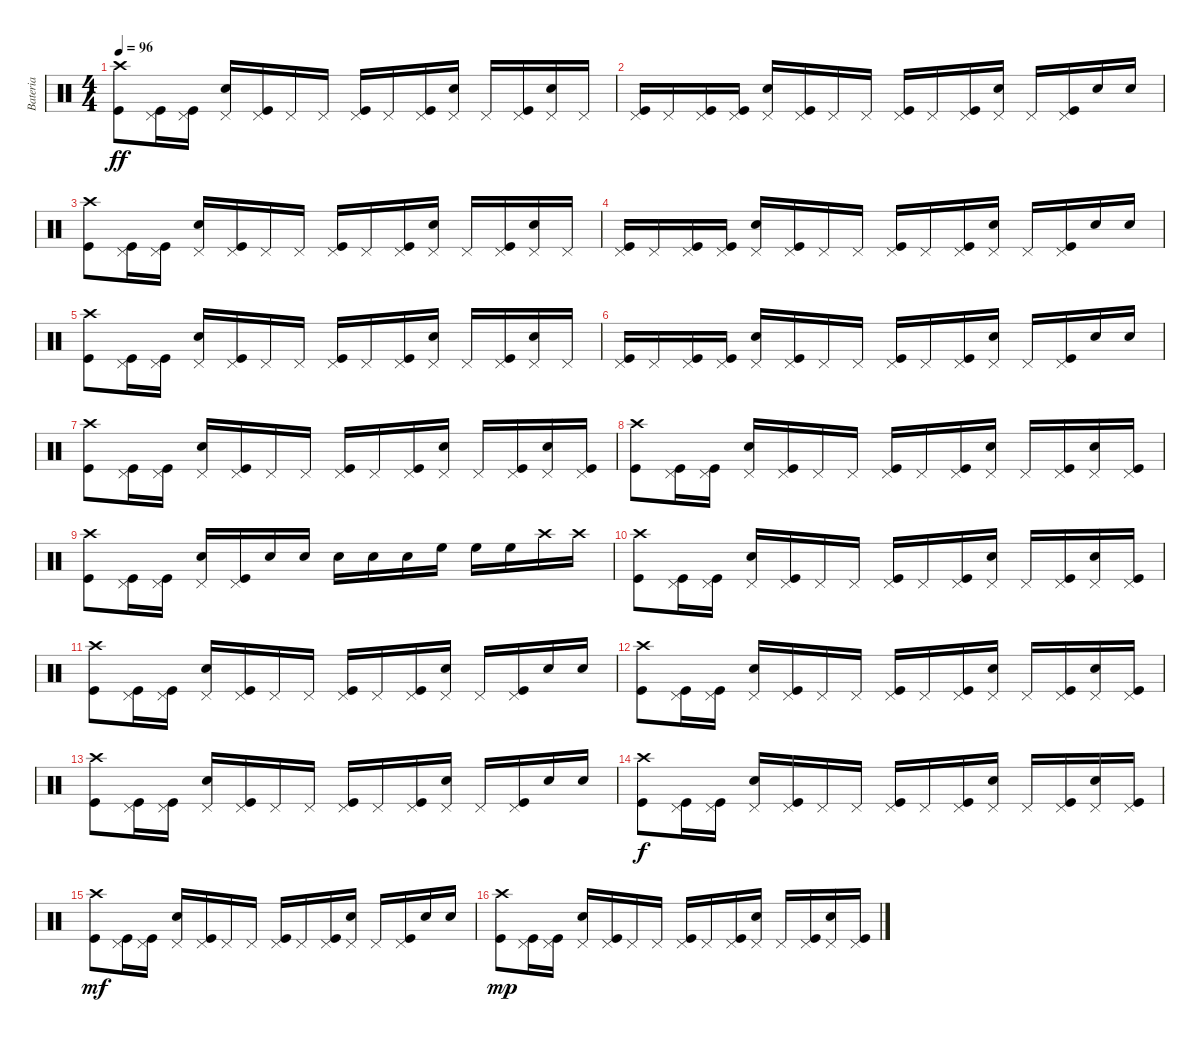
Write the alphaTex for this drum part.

\track ("Bateria" "Bateria") {instrument percussion}
\staff {score}
\articulation defaults
\ts (4 4)
\tempo 96
\clef neutral
\ks c
("Kick (hit)" "Crash high (hit)").8{dy ff} ("Kick (hit)" "Pedal Hi-Hat (hit)").16 ("Kick (hit)" "Pedal Hi-Hat (hit)").16 ("Snare (hit) 2" "Pedal Hi-Hat (hit)").16 ("Kick (hit)" "Pedal Hi-Hat (hit)").16 "Pedal Hi-Hat (hit)".16 "Pedal Hi-Hat (hit)".16 ("Kick (hit)" "Pedal Hi-Hat (hit)").16 "Pedal Hi-Hat (hit)".16 ("Kick (hit)" "Pedal Hi-Hat (hit)").16 ("Snare (hit) 2" "Pedal Hi-Hat (hit)").16 "Pedal Hi-Hat (hit)".16 ("Kick (hit)" "Pedal Hi-Hat (hit)").16 ("Snare (hit) 2" "Pedal Hi-Hat (hit)").16 "Pedal Hi-Hat (hit)".16 |
("Kick (hit)" "Pedal Hi-Hat (hit)").16 "Pedal Hi-Hat (hit)".16 ("Kick (hit)" "Pedal Hi-Hat (hit)").16 ("Kick (hit)" "Pedal Hi-Hat (hit)").16 ("Snare (hit) 2" "Pedal Hi-Hat (hit)").16 ("Kick (hit)" "Pedal Hi-Hat (hit)").16 "Pedal Hi-Hat (hit)".16 "Pedal Hi-Hat (hit)".16 ("Kick (hit)" "Pedal Hi-Hat (hit)").16 "Pedal Hi-Hat (hit)".16 ("Kick (hit)" "Pedal Hi-Hat (hit)").16 ("Snare (hit) 2" "Pedal Hi-Hat (hit)").16 "Pedal Hi-Hat (hit)".16 ("Kick (hit)" "Pedal Hi-Hat (hit)").16 "Snare (hit) 2".16 "Snare (hit) 2".16 |
("Kick (hit)" "Crash high (hit)").8 ("Kick (hit)" "Pedal Hi-Hat (hit)").16 ("Kick (hit)" "Pedal Hi-Hat (hit)").16 ("Snare (hit) 2" "Pedal Hi-Hat (hit)").16 ("Kick (hit)" "Pedal Hi-Hat (hit)").16 "Pedal Hi-Hat (hit)".16 "Pedal Hi-Hat (hit)".16 ("Kick (hit)" "Pedal Hi-Hat (hit)").16 "Pedal Hi-Hat (hit)".16 ("Kick (hit)" "Pedal Hi-Hat (hit)").16 ("Snare (hit) 2" "Pedal Hi-Hat (hit)").16 "Pedal Hi-Hat (hit)".16 ("Kick (hit)" "Pedal Hi-Hat (hit)").16 ("Snare (hit) 2" "Pedal Hi-Hat (hit)").16 "Pedal Hi-Hat (hit)".16 |
("Kick (hit)" "Pedal Hi-Hat (hit)").16 "Pedal Hi-Hat (hit)".16 ("Kick (hit)" "Pedal Hi-Hat (hit)").16 ("Kick (hit)" "Pedal Hi-Hat (hit)").16 ("Snare (hit) 2" "Pedal Hi-Hat (hit)").16 ("Kick (hit)" "Pedal Hi-Hat (hit)").16 "Pedal Hi-Hat (hit)".16 "Pedal Hi-Hat (hit)".16 ("Kick (hit)" "Pedal Hi-Hat (hit)").16 "Pedal Hi-Hat (hit)".16 ("Kick (hit)" "Pedal Hi-Hat (hit)").16 ("Snare (hit) 2" "Pedal Hi-Hat (hit)").16 "Pedal Hi-Hat (hit)".16 ("Kick (hit)" "Pedal Hi-Hat (hit)").16 "Snare (hit) 2".16 "Snare (hit) 2".16 |
("Kick (hit)" "Crash high (hit)").8 ("Kick (hit)" "Pedal Hi-Hat (hit)").16 ("Kick (hit)" "Pedal Hi-Hat (hit)").16 ("Snare (hit) 2" "Pedal Hi-Hat (hit)").16 ("Kick (hit)" "Pedal Hi-Hat (hit)").16 "Pedal Hi-Hat (hit)".16 "Pedal Hi-Hat (hit)".16 ("Kick (hit)" "Pedal Hi-Hat (hit)").16 "Pedal Hi-Hat (hit)".16 ("Kick (hit)" "Pedal Hi-Hat (hit)").16 ("Snare (hit) 2" "Pedal Hi-Hat (hit)").16 "Pedal Hi-Hat (hit)".16 ("Kick (hit)" "Pedal Hi-Hat (hit)").16 ("Snare (hit) 2" "Pedal Hi-Hat (hit)").16 "Pedal Hi-Hat (hit)".16 |
("Kick (hit)" "Pedal Hi-Hat (hit)").16 "Pedal Hi-Hat (hit)".16 ("Kick (hit)" "Pedal Hi-Hat (hit)").16 ("Kick (hit)" "Pedal Hi-Hat (hit)").16 ("Snare (hit) 2" "Pedal Hi-Hat (hit)").16 ("Kick (hit)" "Pedal Hi-Hat (hit)").16 "Pedal Hi-Hat (hit)".16 "Pedal Hi-Hat (hit)".16 ("Kick (hit)" "Pedal Hi-Hat (hit)").16 "Pedal Hi-Hat (hit)".16 ("Kick (hit)" "Pedal Hi-Hat (hit)").16 ("Snare (hit) 2" "Pedal Hi-Hat (hit)").16 "Pedal Hi-Hat (hit)".16 ("Kick (hit)" "Pedal Hi-Hat (hit)").16 "Snare (hit) 2".16 "Snare (hit) 2".16 |
("Kick (hit)" "Crash high (hit)").8 ("Kick (hit)" "Pedal Hi-Hat (hit)").16 ("Kick (hit)" "Pedal Hi-Hat (hit)").16 ("Snare (hit) 2" "Pedal Hi-Hat (hit)").16 ("Kick (hit)" "Pedal Hi-Hat (hit)").16 "Pedal Hi-Hat (hit)".16 "Pedal Hi-Hat (hit)".16 ("Kick (hit)" "Pedal Hi-Hat (hit)").16 "Pedal Hi-Hat (hit)".16 ("Kick (hit)" "Pedal Hi-Hat (hit)").16 ("Snare (hit) 2" "Pedal Hi-Hat (hit)").16 "Pedal Hi-Hat (hit)".16 ("Kick (hit)" "Pedal Hi-Hat (hit)").16 ("Snare (hit) 2" "Pedal Hi-Hat (hit)").16 ("Kick (hit)" "Pedal Hi-Hat (hit)").16 |
("Kick (hit)" "Crash high (hit)").8 ("Kick (hit)" "Pedal Hi-Hat (hit)").16 ("Kick (hit)" "Pedal Hi-Hat (hit)").16 ("Snare (hit) 2" "Pedal Hi-Hat (hit)").16 ("Kick (hit)" "Pedal Hi-Hat (hit)").16 "Pedal Hi-Hat (hit)".16 "Pedal Hi-Hat (hit)".16 ("Kick (hit)" "Pedal Hi-Hat (hit)").16 "Pedal Hi-Hat (hit)".16 ("Kick (hit)" "Pedal Hi-Hat (hit)").16 ("Snare (hit) 2" "Pedal Hi-Hat (hit)").16 "Pedal Hi-Hat (hit)".16 ("Kick (hit)" "Pedal Hi-Hat (hit)").16 ("Snare (hit) 2" "Pedal Hi-Hat (hit)").16 ("Kick (hit)" "Pedal Hi-Hat (hit)").16 |
("Kick (hit)" "Crash high (hit)").8 ("Kick (hit)" "Pedal Hi-Hat (hit)").16 ("Kick (hit)" "Pedal Hi-Hat (hit)").16 ("Snare (hit) 2" "Pedal Hi-Hat (hit)").16 ("Kick (hit)" "Pedal Hi-Hat (hit)").16 "Snare (hit) 2".16 "Snare (hit) 2".16 "Snare (hit) 2".16 "Snare (hit) 2".16 "Snare (hit) 2".16 "High Floor Tom (hit)".16 "High Floor Tom (hit)".16 "High Floor Tom (hit)".16 "Crash high (hit)".16 "Crash high (hit)".16 |
("Kick (hit)" "Crash high (hit)").8 ("Kick (hit)" "Pedal Hi-Hat (hit)").16 ("Kick (hit)" "Pedal Hi-Hat (hit)").16 ("Snare (hit) 2" "Pedal Hi-Hat (hit)").16 ("Kick (hit)" "Pedal Hi-Hat (hit)").16 "Pedal Hi-Hat (hit)".16 "Pedal Hi-Hat (hit)".16 ("Kick (hit)" "Pedal Hi-Hat (hit)").16 "Pedal Hi-Hat (hit)".16 ("Kick (hit)" "Pedal Hi-Hat (hit)").16 ("Snare (hit) 2" "Pedal Hi-Hat (hit)").16 "Pedal Hi-Hat (hit)".16 ("Kick (hit)" "Pedal Hi-Hat (hit)").16 ("Snare (hit) 2" "Pedal Hi-Hat (hit)").16 ("Kick (hit)" "Pedal Hi-Hat (hit)").16 |
("Kick (hit)" "Crash high (hit)").8 ("Kick (hit)" "Pedal Hi-Hat (hit)").16 ("Kick (hit)" "Pedal Hi-Hat (hit)").16 ("Snare (hit) 2" "Pedal Hi-Hat (hit)").16 ("Kick (hit)" "Pedal Hi-Hat (hit)").16 "Pedal Hi-Hat (hit)".16 "Pedal Hi-Hat (hit)".16 ("Kick (hit)" "Pedal Hi-Hat (hit)").16 "Pedal Hi-Hat (hit)".16 ("Kick (hit)" "Pedal Hi-Hat (hit)").16 ("Snare (hit) 2" "Pedal Hi-Hat (hit)").16 "Pedal Hi-Hat (hit)".16 ("Kick (hit)" "Pedal Hi-Hat (hit)").16 "Snare (hit) 2".16 "Snare (hit) 2".16 |
("Kick (hit)" "Crash high (hit)").8 ("Kick (hit)" "Pedal Hi-Hat (hit)").16 ("Kick (hit)" "Pedal Hi-Hat (hit)").16 ("Snare (hit) 2" "Pedal Hi-Hat (hit)").16 ("Kick (hit)" "Pedal Hi-Hat (hit)").16 "Pedal Hi-Hat (hit)".16 "Pedal Hi-Hat (hit)".16 ("Kick (hit)" "Pedal Hi-Hat (hit)").16 "Pedal Hi-Hat (hit)".16 ("Kick (hit)" "Pedal Hi-Hat (hit)").16 ("Snare (hit) 2" "Pedal Hi-Hat (hit)").16 "Pedal Hi-Hat (hit)".16 ("Kick (hit)" "Pedal Hi-Hat (hit)").16 ("Snare (hit) 2" "Pedal Hi-Hat (hit)").16 ("Kick (hit)" "Pedal Hi-Hat (hit)").16 |
("Kick (hit)" "Crash high (hit)").8 ("Kick (hit)" "Pedal Hi-Hat (hit)").16 ("Kick (hit)" "Pedal Hi-Hat (hit)").16 ("Snare (hit) 2" "Pedal Hi-Hat (hit)").16 ("Kick (hit)" "Pedal Hi-Hat (hit)").16 "Pedal Hi-Hat (hit)".16 "Pedal Hi-Hat (hit)".16 ("Kick (hit)" "Pedal Hi-Hat (hit)").16 "Pedal Hi-Hat (hit)".16 ("Kick (hit)" "Pedal Hi-Hat (hit)").16 ("Snare (hit) 2" "Pedal Hi-Hat (hit)").16 "Pedal Hi-Hat (hit)".16 ("Kick (hit)" "Pedal Hi-Hat (hit)").16 "Snare (hit) 2".16 "Snare (hit) 2".16 |
("Kick (hit)" "Crash high (hit)").8{dy f} ("Kick (hit)" "Pedal Hi-Hat (hit)").16 ("Kick (hit)" "Pedal Hi-Hat (hit)").16 ("Snare (hit) 2" "Pedal Hi-Hat (hit)").16 ("Kick (hit)" "Pedal Hi-Hat (hit)").16 "Pedal Hi-Hat (hit)".16 "Pedal Hi-Hat (hit)".16 ("Kick (hit)" "Pedal Hi-Hat (hit)").16 "Pedal Hi-Hat (hit)".16 ("Kick (hit)" "Pedal Hi-Hat (hit)").16 ("Snare (hit) 2" "Pedal Hi-Hat (hit)").16 "Pedal Hi-Hat (hit)".16 ("Kick (hit)" "Pedal Hi-Hat (hit)").16 ("Snare (hit) 2" "Pedal Hi-Hat (hit)").16 ("Kick (hit)" "Pedal Hi-Hat (hit)").16 |
("Kick (hit)" "Crash high (hit)").8{dy mf} ("Kick (hit)" "Pedal Hi-Hat (hit)").16 ("Kick (hit)" "Pedal Hi-Hat (hit)").16 ("Snare (hit) 2" "Pedal Hi-Hat (hit)").16 ("Kick (hit)" "Pedal Hi-Hat (hit)").16 "Pedal Hi-Hat (hit)".16 "Pedal Hi-Hat (hit)".16 ("Kick (hit)" "Pedal Hi-Hat (hit)").16 "Pedal Hi-Hat (hit)".16 ("Kick (hit)" "Pedal Hi-Hat (hit)").16 ("Snare (hit) 2" "Pedal Hi-Hat (hit)").16 "Pedal Hi-Hat (hit)".16 ("Kick (hit)" "Pedal Hi-Hat (hit)").16 "Snare (hit) 2".16 "Snare (hit) 2".16 |
("Kick (hit)" "Crash high (hit)").8{dy mp} ("Kick (hit)" "Pedal Hi-Hat (hit)").16 ("Kick (hit)" "Pedal Hi-Hat (hit)").16 ("Snare (hit) 2" "Pedal Hi-Hat (hit)").16 ("Kick (hit)" "Pedal Hi-Hat (hit)").16 "Pedal Hi-Hat (hit)".16 "Pedal Hi-Hat (hit)".16 ("Kick (hit)" "Pedal Hi-Hat (hit)").16 "Pedal Hi-Hat (hit)".16 ("Kick (hit)" "Pedal Hi-Hat (hit)").16 ("Snare (hit) 2" "Pedal Hi-Hat (hit)").16 "Pedal Hi-Hat (hit)".16 ("Kick (hit)" "Pedal Hi-Hat (hit)").16 ("Snare (hit) 2" "Pedal Hi-Hat (hit)").16 ("Kick (hit)" "Pedal Hi-Hat (hit)").16
